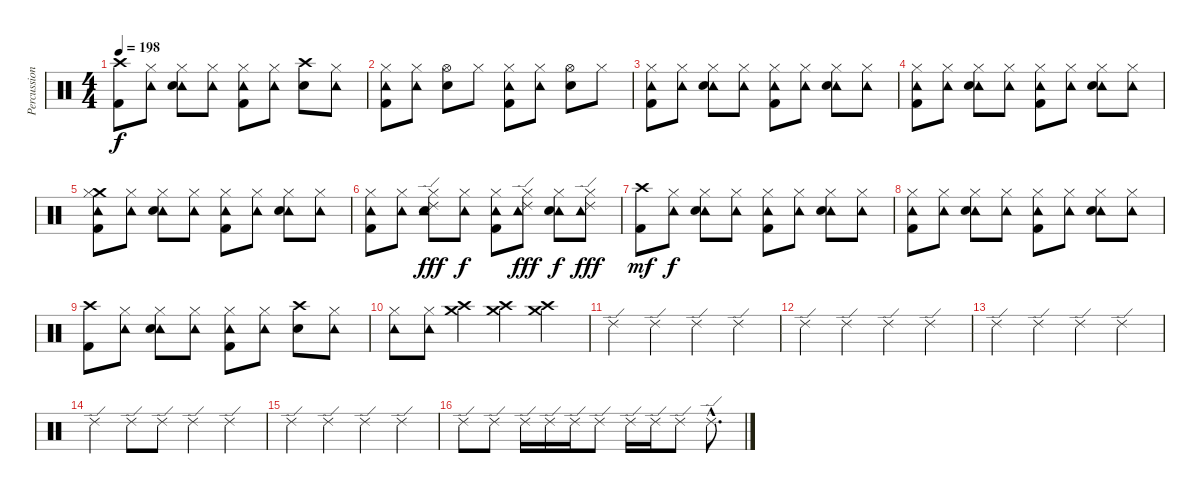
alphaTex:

\track ("Percussion" "Percussion") {instrument percussion}
\staff {score}
\articulation defaults
\ts (4 4)
\tempo 198
\clef neutral
\ks c
("Crash high (hit)" "Kick (hit) 2").8{dy f} ("Tambourine (hit)" "Hi-Hat (closed)").8 ("Tambourine (hit)" "Hi-Hat (closed)" "Electric Snare (hit)").8 ("Tambourine (hit)" "Hi-Hat (closed)").8 ("Tambourine (hit)" "Hi-Hat (closed)" "Kick (hit) 2").8 ("Tambourine (hit)" "Hi-Hat (closed)").8 ("Crash high (hit)" "Electric Snare (hit)").8 ("Tambourine (hit)" "Hi-Hat (closed)").8 |
("Tambourine (hit)" "Hi-Hat (closed)" "Kick (hit) 2").8 ("Tambourine (hit)" "Hi-Hat (closed)").8 ("Hi-Hat (open)" "Electric Snare (hit)").8 "Hi-Hat (closed)".8 ("Tambourine (hit)" "Hi-Hat (closed)" "Kick (hit) 2").8 ("Tambourine (hit)" "Hi-Hat (closed)").8 ("Hi-Hat (open)" "Electric Snare (hit)").8 "Hi-Hat (closed)".8 |
("Tambourine (hit)" "Hi-Hat (closed)" "Kick (hit) 2").8 ("Tambourine (hit)" "Hi-Hat (closed)").8 ("Tambourine (hit)" "Hi-Hat (closed)" "Electric Snare (hit)").8 ("Tambourine (hit)" "Hi-Hat (closed)").8 ("Tambourine (hit)" "Hi-Hat (closed)" "Kick (hit) 2").8 ("Tambourine (hit)" "Hi-Hat (closed)").8 ("Tambourine (hit)" "Hi-Hat (closed)" "Electric Snare (hit)").8 ("Tambourine (hit)" "Hi-Hat (closed)").8 |
("Tambourine (hit)" "Hi-Hat (closed)" "Kick (hit) 2").8 ("Tambourine (hit)" "Hi-Hat (closed)").8 ("Tambourine (hit)" "Hi-Hat (closed)" "Electric Snare (hit)").8 ("Tambourine (hit)" "Hi-Hat (closed)").8 ("Tambourine (hit)" "Hi-Hat (closed)" "Kick (hit) 2").8 ("Tambourine (hit)" "Hi-Hat (closed)").8 ("Tambourine (hit)" "Hi-Hat (closed)" "Electric Snare (hit)").8 ("Tambourine (hit)" "Hi-Hat (closed)").8 |
("Crash medium (hit)" "Tambourine (hit)" "Hi-Hat (closed)" "Kick (hit) 2").8 ("Tambourine (hit)" "Hi-Hat (closed)").8 ("Tambourine (hit)" "Hi-Hat (closed)" "Electric Snare (hit)").8 ("Tambourine (hit)" "Hi-Hat (closed)").8 ("Tambourine (hit)" "Hi-Hat (closed)" "Kick (hit) 2").8 ("Tambourine (hit)" "Hi-Hat (closed)").8 ("Tambourine (hit)" "Hi-Hat (closed)" "Electric Snare (hit)").8 ("Tambourine (hit)" "Hi-Hat (closed)").8 |
("Tambourine (hit)" "Hi-Hat (closed)" "Kick (hit) 2").8 ("Tambourine (hit)" "Hi-Hat (closed)").8 ("Ride (edge) 2" "Tambourine (hit)" "Hi-Hat (closed)" "Electric Snare (hit)").8{dy fff} ("Tambourine (hit)" "Hi-Hat (closed)").8{dy f} ("Tambourine (hit)" "Hi-Hat (closed)" "Kick (hit) 2").8 ("Ride (edge) 2" "Tambourine (hit)" "Hi-Hat (closed)").8{dy fff} ("Tambourine (hit)" "Hi-Hat (closed)" "Electric Snare (hit)").8{dy f} ("Ride (edge) 2" "Tambourine (hit)" "Hi-Hat (closed)").8{dy fff} |
("Crash high (hit)" "Kick (hit) 2").8{dy mf} ("Tambourine (hit)" "Hi-Hat (closed)").8{dy f} ("Tambourine (hit)" "Hi-Hat (closed)" "Electric Snare (hit)").8 ("Tambourine (hit)" "Hi-Hat (closed)").8 ("Tambourine (hit)" "Hi-Hat (closed)" "Kick (hit) 2").8 ("Tambourine (hit)" "Hi-Hat (closed)").8 ("Tambourine (hit)" "Hi-Hat (closed)" "Electric Snare (hit)").8 ("Tambourine (hit)" "Hi-Hat (closed)").8 |
("Tambourine (hit)" "Hi-Hat (closed)" "Kick (hit) 2").8 ("Tambourine (hit)" "Hi-Hat (closed)").8 ("Tambourine (hit)" "Hi-Hat (closed)" "Electric Snare (hit)").8 ("Tambourine (hit)" "Hi-Hat (closed)").8 ("Tambourine (hit)" "Hi-Hat (closed)" "Kick (hit) 2").8 ("Tambourine (hit)" "Hi-Hat (closed)").8 ("Tambourine (hit)" "Hi-Hat (closed)" "Electric Snare (hit)").8 ("Tambourine (hit)" "Hi-Hat (closed)").8 |
("Crash high (hit)" "Kick (hit) 2").8 ("Tambourine (hit)" "Hi-Hat (closed)").8 ("Tambourine (hit)" "Hi-Hat (closed)" "Electric Snare (hit)").8 ("Tambourine (hit)" "Hi-Hat (closed)").8 ("Tambourine (hit)" "Hi-Hat (closed)" "Kick (hit) 2").8 ("Tambourine (hit)" "Hi-Hat (closed)").8 ("Crash high (hit)" "Electric Snare (hit)").8 ("Tambourine (hit)" "Hi-Hat (closed)").8 |
("Tambourine (hit)" "Hi-Hat (closed)").8 ("Tambourine (hit)" "Hi-Hat (closed)").8 ("Crash high (hit)" "Crash medium (hit)").4 ("Crash high (hit)" "Crash medium (hit)").4 ("Crash high (hit)" "Crash medium (hit)").4 |
"Ride (edge) 2".4{volume 9} "Ride (edge) 2".4 "Ride (edge) 2".4 "Ride (edge) 2".4 |
"Ride (edge) 2".4 "Ride (edge) 2".4 "Ride (edge) 2".4 "Ride (edge) 2".4 |
"Ride (edge) 2".4 "Ride (edge) 2".4 "Ride (edge) 2".4 "Ride (edge) 2".4 |
"Ride (edge) 2".4 "Ride (edge) 2".8 "Ride (edge) 2".8 "Ride (edge) 2".4 "Ride (edge) 2".4 |
"Ride (edge) 2".4 "Ride (edge) 2".4 "Ride (edge) 2".4 "Ride (edge) 2".4 |
"Ride (edge) 2".8 "Ride (edge) 2".8 "Ride (edge) 2".16 "Ride (edge) 2".16 "Ride (edge) 2".16 "Ride (edge) 2".8 "Ride (edge) 2".16 "Ride (edge) 2".16 "Ride (edge) 2".8 "Ride (edge) 2"{hac}.8{d}
